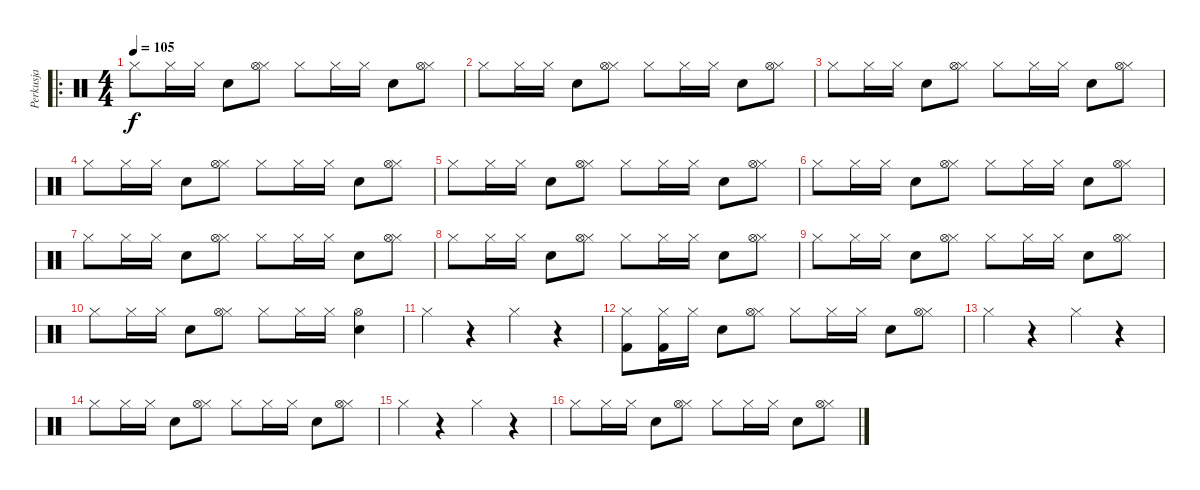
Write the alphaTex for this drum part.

\track ("Perkusja" "Perkusja") {instrument percussion}
\staff {score}
\articulation defaults
\ro
\ts (4 4)
\tempo 105
\clef neutral
\ks c "Hi-Hat (closed)".8{dy f} "Hi-Hat (closed)".16 "Hi-Hat (closed)".16 "Snare (hit) 2".8
("Hi-Hat (closed)" "Hi-Hat (open)").8 "Hi-Hat (closed)".8 "Hi-Hat (closed)".16 "Hi-Hat (closed)".16 "Snare (hit) 2".8 ("Hi-Hat (closed)" "Hi-Hat (open)").8 |
"Hi-Hat (closed)".8 "Hi-Hat (closed)".16 "Hi-Hat (closed)".16 "Snare (hit) 2".8 ("Hi-Hat (closed)" "Hi-Hat (open)").8 "Hi-Hat (closed)".8 "Hi-Hat (closed)".16 "Hi-Hat (closed)".16 "Snare (hit) 2".8 ("Hi-Hat (closed)" "Hi-Hat (open)").8 |
"Hi-Hat (closed)".8 "Hi-Hat (closed)".16 "Hi-Hat (closed)".16 "Snare (hit) 2".8 ("Hi-Hat (closed)" "Hi-Hat (open)").8 "Hi-Hat (closed)".8 "Hi-Hat (closed)".16 "Hi-Hat (closed)".16 "Snare (hit) 2".8 ("Hi-Hat (closed)" "Hi-Hat (open)").8 |
"Hi-Hat (closed)".8 "Hi-Hat (closed)".16 "Hi-Hat (closed)".16 "Snare (hit) 2".8 ("Hi-Hat (closed)" "Hi-Hat (open)").8 "Hi-Hat (closed)".8 "Hi-Hat (closed)".16 "Hi-Hat (closed)".16 "Snare (hit) 2".8 ("Hi-Hat (closed)" "Hi-Hat (open)").8 |
"Hi-Hat (closed)".8 "Hi-Hat (closed)".16 "Hi-Hat (closed)".16 "Snare (hit) 2".8 ("Hi-Hat (closed)" "Hi-Hat (open)").8 "Hi-Hat (closed)".8 "Hi-Hat (closed)".16 "Hi-Hat (closed)".16 "Snare (hit) 2".8 ("Hi-Hat (closed)" "Hi-Hat (open)").8 |
"Hi-Hat (closed)".8 "Hi-Hat (closed)".16 "Hi-Hat (closed)".16 "Snare (hit) 2".8 ("Hi-Hat (closed)" "Hi-Hat (open)").8 "Hi-Hat (closed)".8 "Hi-Hat (closed)".16 "Hi-Hat (closed)".16 "Snare (hit) 2".8 ("Hi-Hat (closed)" "Hi-Hat (open)").8 |
"Hi-Hat (closed)".8 "Hi-Hat (closed)".16 "Hi-Hat (closed)".16 "Snare (hit) 2".8 ("Hi-Hat (closed)" "Hi-Hat (open)").8 "Hi-Hat (closed)".8 "Hi-Hat (closed)".16 "Hi-Hat (closed)".16 "Snare (hit) 2".8 ("Hi-Hat (closed)" "Hi-Hat (open)").8 |
"Hi-Hat (closed)".8 "Hi-Hat (closed)".16 "Hi-Hat (closed)".16 "Snare (hit) 2".8 ("Hi-Hat (closed)" "Hi-Hat (open)").8 "Hi-Hat (closed)".8 "Hi-Hat (closed)".16 "Hi-Hat (closed)".16 "Snare (hit) 2".8 ("Hi-Hat (closed)" "Hi-Hat (open)").8 |
"Hi-Hat (closed)".8 "Hi-Hat (closed)".16 "Hi-Hat (closed)".16 "Snare (hit) 2".8 ("Hi-Hat (closed)" "Hi-Hat (open)").8 "Hi-Hat (closed)".8 "Hi-Hat (closed)".16 "Hi-Hat (closed)".16 "Snare (hit) 2".8 ("Hi-Hat (closed)" "Hi-Hat (open)").8 |
"Hi-Hat (closed)".8 "Hi-Hat (closed)".16 "Hi-Hat (closed)".16 "Snare (hit) 2".8 ("Hi-Hat (closed)" "Hi-Hat (open)").8 "Hi-Hat (closed)".8 "Hi-Hat (closed)".16 "Hi-Hat (closed)".16 ("Snare (hit) 2" "Hi-Hat (open)").4 |
"Hi-Hat (closed)".4 r.4 "Hi-Hat (closed)".4 r.4 |
("Hi-Hat (closed)" "Kick (hit) 2").8 ("Hi-Hat (closed)" "Kick (hit) 2").16 "Hi-Hat (closed)".16 "Snare (hit) 2".8 ("Hi-Hat (closed)" "Hi-Hat (open)").8 "Hi-Hat (closed)".8 "Hi-Hat (closed)".16 "Hi-Hat (closed)".16 "Snare (hit) 2".8 ("Hi-Hat (closed)" "Hi-Hat (open)").8 |
"Hi-Hat (closed)".4 r.4 "Hi-Hat (closed)".4 r.4 |
"Hi-Hat (closed)".8 "Hi-Hat (closed)".16 "Hi-Hat (closed)".16 "Snare (hit) 2".8 ("Hi-Hat (closed)" "Hi-Hat (open)").8 "Hi-Hat (closed)".8 "Hi-Hat (closed)".16 "Hi-Hat (closed)".16 "Snare (hit) 2".8 ("Hi-Hat (closed)" "Hi-Hat (open)").8 |
"Hi-Hat (closed)".4 r.4 "Hi-Hat (closed)".4 r.4 |
"Hi-Hat (closed)".8 "Hi-Hat (closed)".16 "Hi-Hat (closed)".16 "Snare (hit) 2".8 ("Hi-Hat (closed)" "Hi-Hat (open)").8 "Hi-Hat (closed)".8 "Hi-Hat (closed)".16 "Hi-Hat (closed)".16 "Snare (hit) 2".8 ("Hi-Hat (closed)" "Hi-Hat (open)").8
